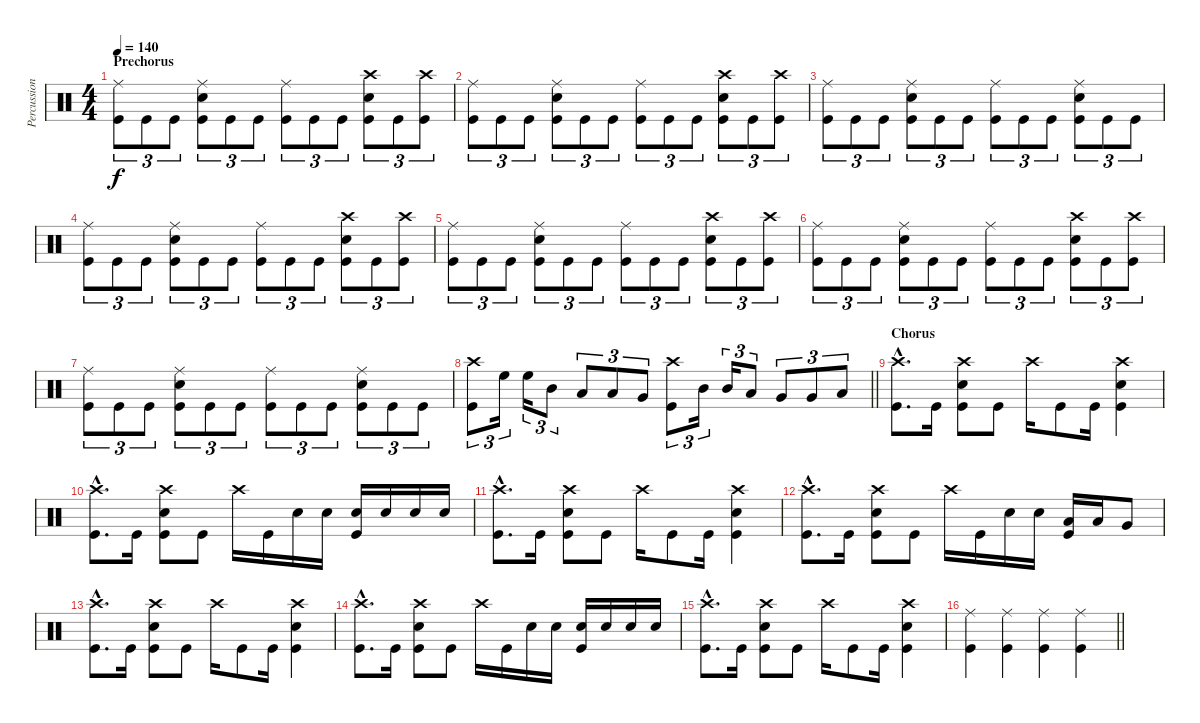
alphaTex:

\track ("Percussion" "Percussion") {instrument percussion}
\staff {score}
\articulation defaults
\ts (4 4)
\section ("" "Prechorus")
\tempo 140
\clef neutral
\ks c
("Ride (middle)" "Kick (hit)").8{tu (3 2) dy f} "Kick (hit)".8{tu (3 2)} "Kick (hit)".8{tu (3 2)} ("Ride (middle)" "Snare (hit) 2" "Kick (hit)").8{tu (3 2)} "Kick (hit)".8{tu (3 2)} "Kick (hit)".8{tu (3 2)} ("Ride (middle)" "Kick (hit)").8{tu (3 2)} "Kick (hit)".8{tu (3 2)} "Kick (hit)".8{tu (3 2)} ("Crash high (hit)" "Snare (hit) 2" "Kick (hit)").8{tu (3 2)} "Kick (hit)".8{tu (3 2)} ("Crash high (hit)" "Kick (hit)").8{tu (3 2)} |
("Ride (middle)" "Kick (hit)").8{tu (3 2)} "Kick (hit)".8{tu (3 2)} "Kick (hit)".8{tu (3 2)} ("Ride (middle)" "Snare (hit) 2" "Kick (hit)").8{tu (3 2)} "Kick (hit)".8{tu (3 2)} "Kick (hit)".8{tu (3 2)} ("Ride (middle)" "Kick (hit)").8{tu (3 2)} "Kick (hit)".8{tu (3 2)} "Kick (hit)".8{tu (3 2)} ("Crash high (hit)" "Snare (hit) 2" "Kick (hit)").8{tu (3 2)} "Kick (hit)".8{tu (3 2)} ("Crash high (hit)" "Kick (hit)").8{tu (3 2)} |
("Ride (middle)" "Kick (hit)").8{tu (3 2)} "Kick (hit)".8{tu (3 2)} "Kick (hit)".8{tu (3 2)} ("Ride (middle)" "Snare (hit) 2" "Kick (hit)").8{tu (3 2)} "Kick (hit)".8{tu (3 2)} "Kick (hit)".8{tu (3 2)} ("Ride (middle)" "Kick (hit)").8{tu (3 2)} "Kick (hit)".8{tu (3 2)} "Kick (hit)".8{tu (3 2)} ("Ride (middle)" "Snare (hit) 2" "Kick (hit)").8{tu (3 2)} "Kick (hit)".8{tu (3 2)} "Kick (hit)".8{tu (3 2)} |
("Ride (middle)" "Kick (hit)").8{tu (3 2)} "Kick (hit)".8{tu (3 2)} "Kick (hit)".8{tu (3 2)} ("Ride (middle)" "Snare (hit) 2" "Kick (hit)").8{tu (3 2)} "Kick (hit)".8{tu (3 2)} "Kick (hit)".8{tu (3 2)} ("Ride (middle)" "Kick (hit)").8{tu (3 2)} "Kick (hit)".8{tu (3 2)} "Kick (hit)".8{tu (3 2)} ("Crash high (hit)" "Snare (hit) 2" "Kick (hit)").8{tu (3 2)} "Kick (hit)".8{tu (3 2)} ("Crash high (hit)" "Kick (hit)").8{tu (3 2)} |
("Ride (middle)" "Kick (hit)").8{tu (3 2)} "Kick (hit)".8{tu (3 2)} "Kick (hit)".8{tu (3 2)} ("Ride (middle)" "Snare (hit) 2" "Kick (hit)").8{tu (3 2)} "Kick (hit)".8{tu (3 2)} "Kick (hit)".8{tu (3 2)} ("Ride (middle)" "Kick (hit)").8{tu (3 2)} "Kick (hit)".8{tu (3 2)} "Kick (hit)".8{tu (3 2)} ("Crash high (hit)" "Snare (hit) 2" "Kick (hit)").8{tu (3 2)} "Kick (hit)".8{tu (3 2)} ("Crash high (hit)" "Kick (hit)").8{tu (3 2)} |
("Ride (middle)" "Kick (hit)").8{tu (3 2)} "Kick (hit)".8{tu (3 2)} "Kick (hit)".8{tu (3 2)} ("Ride (middle)" "Snare (hit) 2" "Kick (hit)").8{tu (3 2)} "Kick (hit)".8{tu (3 2)} "Kick (hit)".8{tu (3 2)} ("Ride (middle)" "Kick (hit)").8{tu (3 2)} "Kick (hit)".8{tu (3 2)} "Kick (hit)".8{tu (3 2)} ("Crash high (hit)" "Snare (hit) 2" "Kick (hit)").8{tu (3 2)} "Kick (hit)".8{tu (3 2)} ("Crash high (hit)" "Kick (hit)").8{tu (3 2)} |
("Ride (middle)" "Kick (hit)").8{tu (3 2)} "Kick (hit)".8{tu (3 2)} "Kick (hit)".8{tu (3 2)} ("Ride (middle)" "Snare (hit) 2" "Kick (hit)").8{tu (3 2)} "Kick (hit)".8{tu (3 2)} "Kick (hit)".8{tu (3 2)} ("Ride (middle)" "Kick (hit)").8{tu (3 2)} "Kick (hit)".8{tu (3 2)} "Kick (hit)".8{tu (3 2)} ("Ride (middle)" "Snare (hit) 2" "Kick (hit)").8{tu (3 2)} "Kick (hit)".8{tu (3 2)} "Kick (hit)".8{tu (3 2)} |
\barLineRight lightlight
("Crash high (hit)" "Kick (hit)").8{tu (3 2)} "High Floor Tom (hit)".16{tu (3 2)} "High Floor Tom (hit)".16{tu (3 2)} "Mid Tom (hit)".8{tu (3 2)} "Low Tom (hit)".8{tu (3 2)} "Low Tom (hit)".8{tu (3 2)} "Very Low Tom (hit)".8{tu (3 2)} ("Crash high (hit)" "Kick (hit)").8{tu (3 2)} "Mid Tom (hit)".16{tu (3 2)} "Mid Tom (hit)".16{tu (3 2)} "Low Tom (hit)".8{tu (3 2)} "Very Low Tom (hit)".8{tu (3 2)} "Very Low Tom (hit)".8{tu (3 2)} "Low Floor Tom (hit)".8{tu (3 2)} |
\section ("" "Chorus")
("Crash high (hit)"{hac} "Kick (hit)"{hac}).8{d} "Kick (hit)".16 ("Crash high (hit)" "Snare (hit) 2" "Kick (hit)").8 "Kick (hit)".8 "Crash high (hit)".16 "Kick (hit)".8 "Kick (hit)".16 ("Crash high (hit)" "Snare (hit) 2" "Kick (hit)").4 |
("Crash high (hit)"{hac} "Kick (hit)"{hac}).8{d} "Kick (hit)".16 ("Crash high (hit)" "Snare (hit) 2" "Kick (hit)").8 "Kick (hit)".8 "Crash high (hit)".16 "Kick (hit)".16 "Snare (hit) 2".16 "Snare (hit) 2".16 ("Snare (hit) 2" "Kick (hit)").16 "Snare (hit) 2".16 "Snare (hit) 2".16 "Snare (hit) 2".16 |
("Crash high (hit)"{hac} "Kick (hit)"{hac}).8{d} "Kick (hit)".16 ("Crash high (hit)" "Snare (hit) 2" "Kick (hit)").8 "Kick (hit)".8 "Crash high (hit)".16 "Kick (hit)".8 "Kick (hit)".16 ("Crash high (hit)" "Snare (hit) 2" "Kick (hit)").4 |
("Crash high (hit)"{hac} "Kick (hit)"{hac}).8{d} "Kick (hit)".16 ("Crash high (hit)" "Snare (hit) 2" "Kick (hit)").8 "Kick (hit)".8 "Crash high (hit)".16 "Kick (hit)".16 "Snare (hit) 2".16 "Snare (hit) 2".16 ("Low Tom (hit)" "Kick (hit)").16 "Low Tom (hit)".16 "Very Low Tom (hit)".8 |
("Crash high (hit)"{hac} "Kick (hit)"{hac}).8{d} "Kick (hit)".16 ("Crash high (hit)" "Snare (hit) 2" "Kick (hit)").8 "Kick (hit)".8 "Crash high (hit)".16 "Kick (hit)".8 "Kick (hit)".16 ("Crash high (hit)" "Snare (hit) 2" "Kick (hit)").4 |
("Crash high (hit)"{hac} "Kick (hit)"{hac}).8{d} "Kick (hit)".16 ("Crash high (hit)" "Snare (hit) 2" "Kick (hit)").8 "Kick (hit)".8 "Crash high (hit)".16 "Kick (hit)".16 "Snare (hit) 2".16 "Snare (hit) 2".16 ("Snare (hit) 2" "Kick (hit)").16 "Snare (hit) 2".16 "Snare (hit) 2".16 "Snare (hit) 2".16 |
("Crash high (hit)"{hac} "Kick (hit)"{hac}).8{d} "Kick (hit)".16 ("Crash high (hit)" "Snare (hit) 2" "Kick (hit)").8 "Kick (hit)".8 "Crash high (hit)".16 "Kick (hit)".8 "Kick (hit)".16 ("Crash high (hit)" "Snare (hit) 2" "Kick (hit)").4 |
\barLineRight lightlight
("Ride (middle)" "Kick (hit)").4 ("Ride (middle)" "Kick (hit)").4 ("Ride (middle)" "Kick (hit)").4 ("Ride (middle)" "Kick (hit)").4
